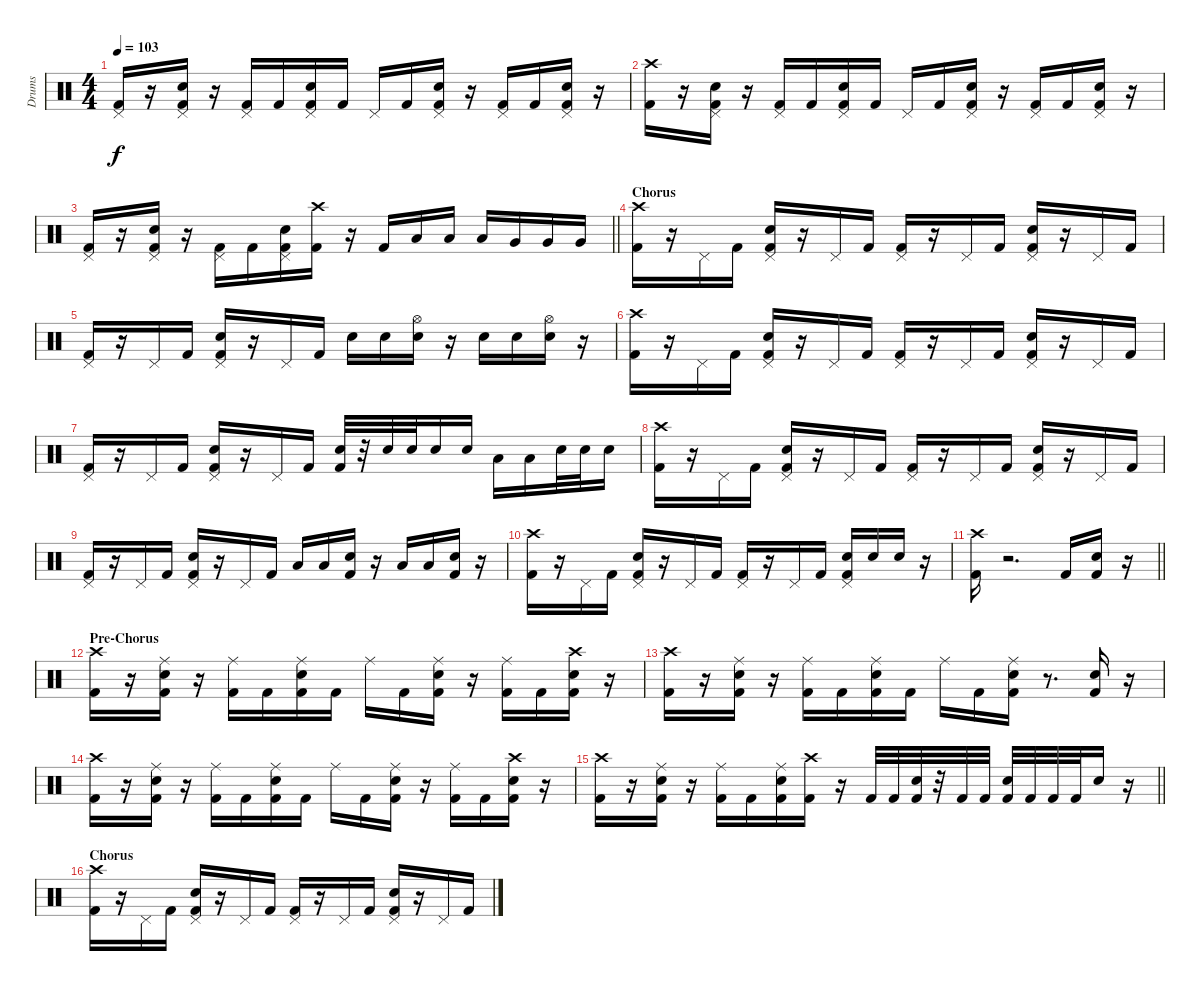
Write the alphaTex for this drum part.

\track ("Drums" "Drums") {instrument percussion}
\staff {score}
\articulation defaults
\ts (4 4)
\tempo 103
\clef neutral
\ks c
("Pedal Hi-Hat (hit)" "Kick (hit) 2").16{dy f} r.16 ("Pedal Hi-Hat (hit)" "Snare (hit) 2" "Kick (hit) 2").16 r.16 ("Pedal Hi-Hat (hit)" "Kick (hit) 2").16 "Kick (hit) 2".16 ("Pedal Hi-Hat (hit)" "Snare (hit) 2" "Kick (hit) 2").16 "Kick (hit) 2".16 "Pedal Hi-Hat (hit)".16 "Kick (hit) 2".16 ("Pedal Hi-Hat (hit)" "Snare (hit) 2" "Kick (hit) 2").16 r.16 ("Pedal Hi-Hat (hit)" "Kick (hit) 2").16 "Kick (hit) 2".16 ("Pedal Hi-Hat (hit)" "Snare (hit) 2" "Kick (hit) 2").16 r.16 |
("Crash high (hit)" "Kick (hit) 2").16 r.16 ("Pedal Hi-Hat (hit)" "Snare (hit) 2" "Kick (hit) 2").16 r.16 ("Pedal Hi-Hat (hit)" "Kick (hit) 2").16 "Kick (hit) 2".16 ("Pedal Hi-Hat (hit)" "Snare (hit) 2" "Kick (hit) 2").16 "Kick (hit) 2".16 "Pedal Hi-Hat (hit)".16 "Kick (hit) 2".16 ("Pedal Hi-Hat (hit)" "Snare (hit) 2" "Kick (hit) 2").16 r.16 ("Pedal Hi-Hat (hit)" "Kick (hit) 2").16 "Kick (hit) 2".16 ("Pedal Hi-Hat (hit)" "Snare (hit) 2" "Kick (hit) 2").16 r.16 |
\barLineRight lightlight
("Pedal Hi-Hat (hit)" "Kick (hit) 2").16 r.16 ("Pedal Hi-Hat (hit)" "Snare (hit) 2" "Kick (hit) 2").16 r.16 ("Pedal Hi-Hat (hit)" "Kick (hit) 2").16 "Kick (hit) 2".16 ("Pedal Hi-Hat (hit)" "Snare (hit) 2" "Kick (hit) 2").16 ("Crash high (hit)" "Kick (hit) 2").16 r.16 "Kick (hit) 2".16 "Low Tom (hit)".16 "Low Tom (hit)".16 "Low Tom (hit)".16 "Very Low Tom (hit)".16 "Very Low Tom (hit)".16 "Very Low Tom (hit)".16 |
\section ("" "Chorus")
("Crash high (hit)" "Kick (hit) 2").16 r.16 "Pedal Hi-Hat (hit)".16 "Kick (hit) 2".16 ("Pedal Hi-Hat (hit)" "Snare (hit) 2" "Kick (hit) 2").16 r.16 "Pedal Hi-Hat (hit)".16 "Kick (hit) 2".16 ("Pedal Hi-Hat (hit)" "Kick (hit) 2").16 r.16 "Pedal Hi-Hat (hit)".16 "Kick (hit) 2".16 ("Pedal Hi-Hat (hit)" "Snare (hit) 2" "Kick (hit) 2").16 r.16 "Pedal Hi-Hat (hit)".16 "Kick (hit) 2".16 |
("Pedal Hi-Hat (hit)" "Kick (hit) 2").16 r.16 "Pedal Hi-Hat (hit)".16 "Kick (hit) 2".16 ("Pedal Hi-Hat (hit)" "Snare (hit) 2" "Kick (hit) 2").16 r.16 "Pedal Hi-Hat (hit)".16 "Kick (hit) 2".16 "Snare (hit) 2".16 "Snare (hit) 2".16 ("Hi-Hat (open)" "Snare (hit) 2").16 r.16 "Snare (hit) 2".16 "Snare (hit) 2".16 ("Hi-Hat (open)" "Snare (hit) 2").16 r.16 |
("Crash high (hit)" "Kick (hit) 2").16 r.16 "Pedal Hi-Hat (hit)".16 "Kick (hit) 2".16 ("Pedal Hi-Hat (hit)" "Snare (hit) 2" "Kick (hit) 2").16 r.16 "Pedal Hi-Hat (hit)".16 "Kick (hit) 2".16 ("Pedal Hi-Hat (hit)" "Kick (hit) 2").16 r.16 "Pedal Hi-Hat (hit)".16 "Kick (hit) 2".16 ("Pedal Hi-Hat (hit)" "Snare (hit) 2" "Kick (hit) 2").16 r.16 "Pedal Hi-Hat (hit)".16 "Kick (hit) 2".16 |
("Pedal Hi-Hat (hit)" "Kick (hit) 2").16 r.16 "Pedal Hi-Hat (hit)".16 "Kick (hit) 2".16 ("Pedal Hi-Hat (hit)" "Snare (hit) 2" "Kick (hit) 2").16 r.16 "Pedal Hi-Hat (hit)".16 "Kick (hit) 2".16 ("Snare (hit) 2" "Kick (hit) 2").32 r.32 "Snare (hit) 2".32 "Snare (hit) 2".32 "Snare (hit) 2".16 "Snare (hit) 2".16 "Low Tom (hit)".16 "Low Tom (hit)".16 "Snare (hit) 2".32 "Snare (hit) 2".32 "Snare (hit) 2".16 |
("Crash high (hit)" "Kick (hit) 2").16 r.16 "Pedal Hi-Hat (hit)".16 "Kick (hit) 2".16 ("Pedal Hi-Hat (hit)" "Snare (hit) 2" "Kick (hit) 2").16 r.16 "Pedal Hi-Hat (hit)".16 "Kick (hit) 2".16 ("Pedal Hi-Hat (hit)" "Kick (hit) 2").16 r.16 "Pedal Hi-Hat (hit)".16 "Kick (hit) 2".16 ("Pedal Hi-Hat (hit)" "Snare (hit) 2" "Kick (hit) 2").16 r.16 "Pedal Hi-Hat (hit)".16 "Kick (hit) 2".16 |
("Pedal Hi-Hat (hit)" "Kick (hit) 2").16 r.16 "Pedal Hi-Hat (hit)".16 "Kick (hit) 2".16 ("Pedal Hi-Hat (hit)" "Snare (hit) 2" "Kick (hit) 2").16 r.16 "Pedal Hi-Hat (hit)".16 "Kick (hit) 2".16 "Low Tom (hit)".16 "Low Tom (hit)".16 ("Snare (hit) 2" "Kick (hit) 2").16 r.16 "Low Tom (hit)".16 "Low Tom (hit)".16 ("Snare (hit) 2" "Kick (hit) 2").16 r.16 |
("Crash high (hit)" "Kick (hit) 2").16 r.16 "Pedal Hi-Hat (hit)".16 "Kick (hit) 2".16 ("Pedal Hi-Hat (hit)" "Snare (hit) 2" "Kick (hit) 2").16 r.16 "Pedal Hi-Hat (hit)".16 "Kick (hit) 2".16 ("Pedal Hi-Hat (hit)" "Kick (hit) 2").16 r.16 "Pedal Hi-Hat (hit)".16 "Kick (hit) 2".16 ("Pedal Hi-Hat (hit)" "Snare (hit) 2" "Kick (hit) 2").16 "Snare (hit) 2".16 "Snare (hit) 2".16 r.16 |
\barLineRight lightlight
("Crash high (hit)" "Kick (hit) 2").16 r.2{d} "Kick (hit) 2".16 ("Snare (hit) 2" "Kick (hit) 2").16 r.16 |
\section ("" "Pre-Chorus")
("Crash high (hit)" "Kick (hit) 2").16 r.16 ("Ride (middle)" "Snare (hit) 2" "Kick (hit) 2").16 r.16 ("Ride (middle)" "Kick (hit) 2").16 "Kick (hit) 2".16 ("Ride (middle)" "Snare (hit) 2" "Kick (hit) 2").16 "Kick (hit) 2".16 "Ride (middle)".16 "Kick (hit) 2".16 ("Ride (middle)" "Snare (hit) 2" "Kick (hit) 2").16 r.16 ("Ride (middle)" "Kick (hit) 2").16 "Kick (hit) 2".16 ("Crash high (hit)" "Snare (hit) 2" "Kick (hit) 2").16 r.16 |
("Crash high (hit)" "Kick (hit) 2").16 r.16 ("Ride (middle)" "Snare (hit) 2" "Kick (hit) 2").16 r.16 ("Ride (middle)" "Kick (hit) 2").16 "Kick (hit) 2".16 ("Ride (middle)" "Snare (hit) 2" "Kick (hit) 2").16 "Kick (hit) 2".16 "Ride (middle)".16 "Kick (hit) 2".16 ("Ride (middle)" "Snare (hit) 2" "Kick (hit) 2").16 r.8{d} ("Snare (hit) 2" "Kick (hit) 2").16 r.16 |
("Crash high (hit)" "Kick (hit) 2").16 r.16 ("Ride (middle)" "Snare (hit) 2" "Kick (hit) 2").16 r.16 ("Ride (middle)" "Kick (hit) 2").16 "Kick (hit) 2".16 ("Ride (middle)" "Snare (hit) 2" "Kick (hit) 2").16 "Kick (hit) 2".16 "Ride (middle)".16 "Kick (hit) 2".16 ("Ride (middle)" "Snare (hit) 2" "Kick (hit) 2").16 r.16 ("Ride (middle)" "Kick (hit) 2").16 "Kick (hit) 2".16 ("Crash high (hit)" "Snare (hit) 2" "Kick (hit) 2").16 r.16 |
\barLineRight lightlight
("Crash high (hit)" "Kick (hit) 2").16 r.16 ("Ride (middle)" "Snare (hit) 2" "Kick (hit) 2").16 r.16 ("Ride (middle)" "Kick (hit) 2").16 "Kick (hit) 2".16 ("Ride (middle)" "Snare (hit) 2" "Kick (hit) 2").16 ("Crash high (hit)" "Kick (hit) 2").16 r.16 "Kick (hit) 2".32 "Kick (hit) 2".32 ("Snare (hit) 2" "Kick (hit) 2").32 r.32 "Kick (hit) 2".32 "Kick (hit) 2".32 ("Snare (hit) 2" "Kick (hit) 2").32 "Kick (hit) 2".32 "Kick (hit) 2".32 "Kick (hit) 2".32 "Snare (hit) 2".16 r.16 |
\section ("" "Chorus")
("Crash high (hit)" "Kick (hit) 2").16 r.16 "Pedal Hi-Hat (hit)".16 "Kick (hit) 2".16 ("Pedal Hi-Hat (hit)" "Snare (hit) 2" "Kick (hit) 2").16 r.16 "Pedal Hi-Hat (hit)".16 "Kick (hit) 2".16 ("Pedal Hi-Hat (hit)" "Kick (hit) 2").16 r.16 "Pedal Hi-Hat (hit)".16 "Kick (hit) 2".16 ("Pedal Hi-Hat (hit)" "Snare (hit) 2" "Kick (hit) 2").16 r.16 "Pedal Hi-Hat (hit)".16 "Kick (hit) 2".16
